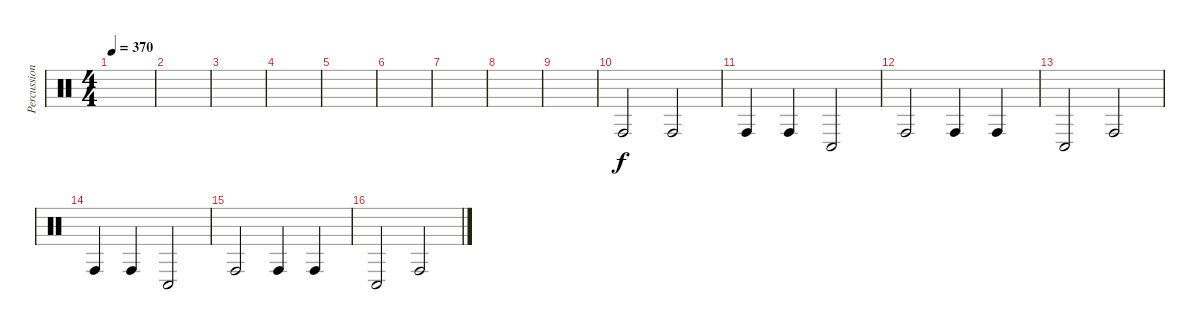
\track ("Percussions" "Percussion") {instrument percussion}
\staff {score}
\articulation defaults
\ts (4 4)
\tempo 370
\clef neutral
\ks c
|
|
|
|
|
|
|
|
|
"Conga high (hit)".2 "Conga high (hit)".2 |
"Conga high (hit)".4 "Conga high (hit)".4 "Conga low (hit)".2 |
"Conga high (hit)".2 "Conga high (hit)".4 "Conga high (hit)".4 |
"Conga low (hit)".2 "Conga high (hit)".2 |
"Conga high (hit)".4 "Conga high (hit)".4 "Conga low (hit)".2 |
"Conga high (hit)".2 "Conga high (hit)".4 "Conga high (hit)".4 |
"Conga low (hit)".2 "Conga high (hit)".2
